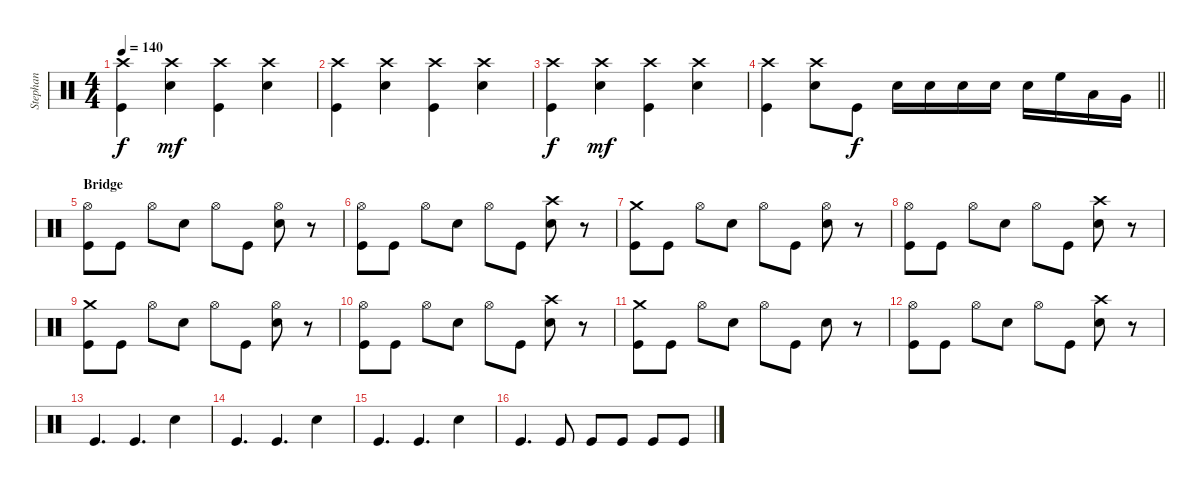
\track ("Stephan" "Stephan") {instrument percussion}
\staff {score}
\articulation defaults
\ts (4 4)
\tempo 140
\clef neutral
\ks c
("Kick (hit)" "Crash high (hit)").4{dy f} ("Snare (hit) 2" "Crash high (hit)").4{dy mf} ("Kick (hit)" "Crash high (hit)").4 ("Snare (hit) 2" "Crash high (hit)").4 |
("Kick (hit)" "Crash high (hit)").4 ("Snare (hit) 2" "Crash high (hit)").4 ("Kick (hit)" "Crash high (hit)").4 ("Snare (hit) 2" "Crash high (hit)").4 |
("Kick (hit)" "Crash high (hit)").4{dy f} ("Snare (hit) 2" "Crash high (hit)").4{dy mf} ("Kick (hit)" "Crash high (hit)").4 ("Snare (hit) 2" "Crash high (hit)").4 |
\barLineRight lightlight
("Kick (hit)" "Crash high (hit)").4 ("Snare (hit) 2" "Crash high (hit)").8 "Kick (hit)".8{dy f} "Snare (hit) 2".16 "Snare (hit) 2".16 "Snare (hit) 2".16 "Snare (hit) 2".16 "Snare (hit) 2".16 "High Floor Tom (hit)".16 "Low Tom (hit)".16 "Very Low Tom (hit)".16 |
\section ("" "Bridge")
("Kick (hit)" "Hi-Hat (open)").8 "Kick (hit)".8 "Hi-Hat (open)".8 "Snare (hit) 2".8 "Hi-Hat (open)".8 "Kick (hit)".8 ("Snare (hit) 2" "Hi-Hat (open)").8 r.8 |
("Kick (hit)" "Hi-Hat (open)").8 "Kick (hit)".8 "Hi-Hat (open)".8 "Snare (hit) 2".8 "Hi-Hat (open)".8 "Kick (hit)".8 ("Snare (hit) 2" "Crash high (hit)").8 r.8 |
("Kick (hit)" "Crash medium (hit)").8 "Kick (hit)".8 "Hi-Hat (open)".8 "Snare (hit) 2".8 "Hi-Hat (open)".8 "Kick (hit)".8 ("Snare (hit) 2" "Hi-Hat (open)").8 r.8 |
("Kick (hit)" "Hi-Hat (open)").8 "Kick (hit)".8 "Hi-Hat (open)".8 "Snare (hit) 2".8 "Hi-Hat (open)".8 "Kick (hit)".8 ("Snare (hit) 2" "Crash high (hit)").8 r.8 |
("Kick (hit)" "Crash medium (hit)").8 "Kick (hit)".8 "Hi-Hat (open)".8 "Snare (hit) 2".8 "Hi-Hat (open)".8 "Kick (hit)".8 ("Snare (hit) 2" "Hi-Hat (open)").8 r.8 |
("Kick (hit)" "Hi-Hat (open)").8 "Kick (hit)".8 "Hi-Hat (open)".8 "Snare (hit) 2".8 "Hi-Hat (open)".8 "Kick (hit)".8 ("Snare (hit) 2" "Crash high (hit)").8 r.8 |
("Kick (hit)" "Crash medium (hit)").8 "Kick (hit)".8 "Hi-Hat (open)".8 "Snare (hit) 2".8 "Hi-Hat (open)".8 "Kick (hit)".8 "Snare (hit) 2".8 r.8 |
("Kick (hit)" "Hi-Hat (open)").8 "Kick (hit)".8 "Hi-Hat (open)".8 "Snare (hit) 2".8 "Hi-Hat (open)".8 "Kick (hit)".8 ("Snare (hit) 2" "Crash high (hit)").8 r.8 |
"Kick (hit)".4{d} "Kick (hit)".4{d} "Snare (hit) 2".4 |
"Kick (hit)".4{d} "Kick (hit)".4{d} "Snare (hit) 2".4 |
"Kick (hit)".4{d} "Kick (hit)".4{d} "Snare (hit) 2".4 |
"Kick (hit)".4{d} "Kick (hit)".8 "Kick (hit)".8 "Kick (hit)".8 "Kick (hit)".8 "Kick (hit)".8
